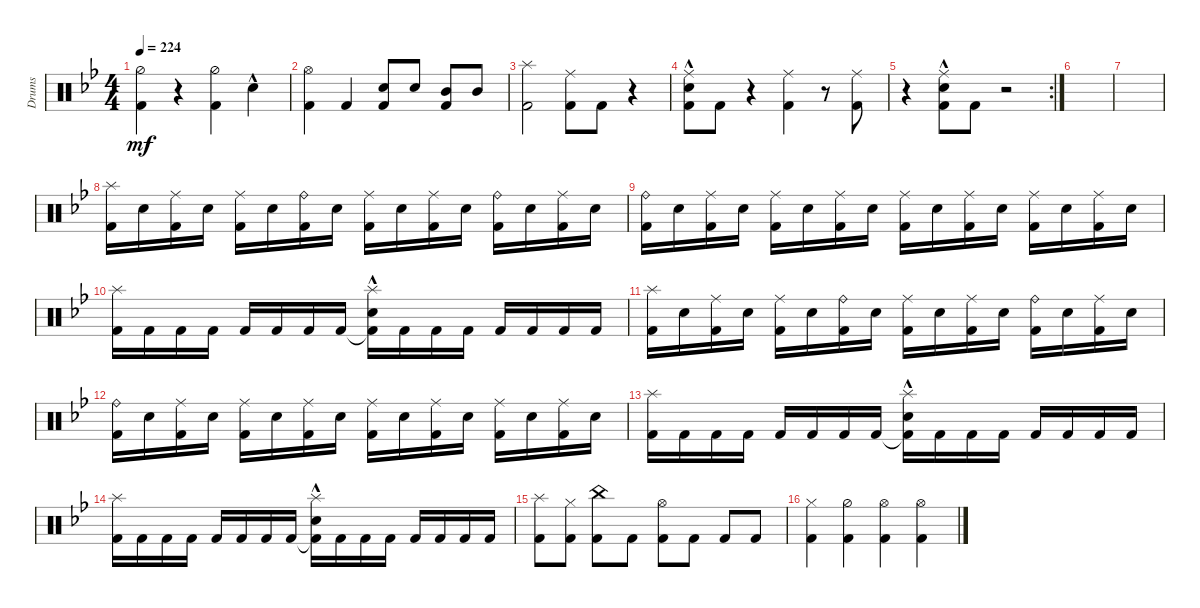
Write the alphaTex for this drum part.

\defaultSystemsLayout 4
\bracketExtendMode groupsimilarinstruments
\otherSystemsTrackNameOrientation horizontal
\track ("Drumkit" "Drums") {instrument percussion}
\staff {score}
\articulation defaults
\ts (4 4)
\tempo 224
\clef neutral
\scale
0.311111
\ks bb
("Kick (hit) 2"{acc forcenatural} "Hi-Hat (half)"{acc forcenatural}).4{dy mf beam Down} r.4{beam Down} ("Kick (hit) 2"{acc forcenatural} "Hi-Hat (half)"{acc forcenatural}).4{beam Down} "Snare (hit) 2"{hac acc forcenatural}.4{beam Down} |
\scale
0.311111 ("Kick (hit) 2"{acc forcenatural} "Hi-Hat (open)"{acc forcenatural}).4{beam Down} "Kick (hit) 2"{acc forcenatural}.4{beam Up} ("Snare (hit) 2"{acc forcenatural} "Kick (hit) 2"{acc forcenatural}).8{beam Up} "Snare (hit) 2"{acc forcenatural}.8{beam Up} ("Mid Tom (hit)"{acc forcenatural} "Kick (hit) 2"{acc forcenatural}).8{beam Up} "Mid Tom (hit)"{acc forcenatural}.8{beam Up} |
\scale
0.321839 ("Kick (hit) 2"{acc forcenatural} "Splash (hit)"{acc forcenatural}).2{beam Down} ("Kick (hit) 2"{acc forcenatural} "Ride (middle)"{acc forcenatural}).8{beam Down} "Kick (hit) 2"{acc forcenatural}.8{beam Down} r.4{beam Down} |
\scale
0.321839 ("Kick (hit) 2"{acc forcenatural} "Ride (middle)"{acc forcenatural} "Snare (hit) 2"{hac acc forcenatural}).8{beam Down} "Kick (hit) 2"{acc forcenatural}.8{beam Down} r.4{beam Down} ("Kick (hit) 2"{acc forcenatural} "Ride (middle)"{acc forcenatural}).4{beam Down} r.8{beam Down} ("Kick (hit) 2"{acc forcenatural} "Ride (middle)"{acc forcenatural}).8{beam Down} |
\rc 2
\scale
0.356322 r.4{beam Down} ("Kick (hit) 2"{acc forcenatural} "Ride (middle)"{acc forcenatural} "Snare (hit) 2"{hac acc forcenatural}).8{beam Down} "Kick (hit) 2"{acc forcenatural}.8{beam Down} r.2{beam Down} |
\scale
0.333333 |
\scale
0.333333 |
\scale
0.333333 ("Splash (hit)"{acc forcenatural} "Kick (hit) 2"{acc forcenatural}).16{beam Down} "Snare (hit) 2"{acc forcenatural}.16{beam Down} ("Kick (hit) 2"{acc forcenatural} "Ride (middle)"{acc forcenatural}).16{beam Down} "Snare (hit) 2"{acc forcenatural}.16{beam Down} ("Kick (hit) 2"{acc forcenatural} "Ride (middle)"{acc forcenatural}).16{beam Down} "Snare (hit) 2"{acc forcenatural}.16{beam Down} ("Kick (hit) 2"{acc forcenatural} "Ride (bell)"{acc forcenatural}).16{beam Down} "Snare (hit) 2"{acc forcenatural}.16{beam Down} ("Kick (hit) 2"{acc forcenatural} "Ride (middle)"{acc forcenatural}).16{beam Down} "Snare (hit) 2"{acc forcenatural}.16{beam Down} ("Kick (hit) 2"{acc forcenatural} "Ride (middle)"{acc forcenatural}).16{beam Down} "Snare (hit) 2"{acc forcenatural}.16{beam Down} ("Kick (hit) 2"{acc forcenatural} "Ride (bell)"{acc forcenatural}).16{beam Down} "Snare (hit) 2"{acc forcenatural}.16{beam Down} ("Kick (hit) 2"{acc forcenatural} "Ride (middle)"{acc forcenatural}).16{beam Down} "Snare (hit) 2"{acc forcenatural}.16{beam Down} |
\scale
0.333333 ("Kick (hit) 2"{acc forcenatural} "Ride (bell)"{acc forcenatural}).16{beam Down} "Snare (hit) 2"{acc forcenatural}.16{beam Down} ("Kick (hit) 2"{acc forcenatural} "Ride (middle)"{acc forcenatural}).16{beam Down} "Snare (hit) 2"{acc forcenatural}.16{beam Down} ("Kick (hit) 2"{acc forcenatural} "Ride (middle)"{acc forcenatural}).16{beam Down} "Snare (hit) 2"{acc forcenatural}.16{beam Down} ("Kick (hit) 2"{acc forcenatural} "Ride (middle)"{acc forcenatural}).16{beam Down} "Snare (hit) 2"{acc forcenatural}.16{beam Down} ("Kick (hit) 2"{acc forcenatural} "Ride (middle)"{acc forcenatural}).16{beam Down} "Snare (hit) 2"{acc forcenatural}.16{beam Down} ("Kick (hit) 2"{acc forcenatural} "Ride (middle)"{acc forcenatural}).16{beam Down} "Snare (hit) 2"{acc forcenatural}.16{beam Down} ("Kick (hit) 2"{acc forcenatural} "Ride (middle)"{acc forcenatural}).16{beam Down} "Snare (hit) 2"{acc forcenatural}.16{beam Down} ("Kick (hit) 2"{acc forcenatural} "Ride (middle)"{acc forcenatural}).16{beam Down} "Snare (hit) 2"{acc forcenatural}.16{beam Down} |
\scale
0.333333 ("Kick (hit) 2"{acc forcenatural} "Splash (hit)"{acc forcenatural}).16{beam Down} "Kick (hit) 2"{acc forcenatural}.16{beam Down} "Kick (hit) 2"{acc forcenatural}.16{beam Down} "Kick (hit) 2"{acc forcenatural}.16{beam Down} "Kick (hit) 2"{acc forcenatural}.16{beam Up} "Kick (hit) 2"{acc forcenatural}.16{beam Up} "Kick (hit) 2"{acc forcenatural}.16{beam Up} "Kick (hit) 2"{acc forcenatural}.16{beam Up} ("Kick (hit) 2"{t acc forcenatural} "Splash (hit)"{acc forcenatural} "Snare (hit) 2"{hac acc forcenatural}).16{beam Down} "Kick (hit) 2"{acc forcenatural}.16{beam Down} "Kick (hit) 2"{acc forcenatural}.16{beam Down} "Kick (hit) 2"{acc forcenatural}.16{beam Down} "Kick (hit) 2"{acc forcenatural}.16{beam Up} "Kick (hit) 2"{acc forcenatural}.16{beam Up} "Kick (hit) 2"{acc forcenatural}.16{beam Up} "Kick (hit) 2"{acc forcenatural}.16{beam Up} |
\scale
0.333333 ("Splash (hit)"{acc forcenatural} "Kick (hit) 2"{acc forcenatural}).16{beam Down} "Snare (hit) 2"{acc forcenatural}.16{beam Down} ("Kick (hit) 2"{acc forcenatural} "Ride (middle)"{acc forcenatural}).16{beam Down} "Snare (hit) 2"{acc forcenatural}.16{beam Down} ("Kick (hit) 2"{acc forcenatural} "Ride (middle)"{acc forcenatural}).16{beam Down} "Snare (hit) 2"{acc forcenatural}.16{beam Down} ("Kick (hit) 2"{acc forcenatural} "Ride (bell)"{acc forcenatural}).16{beam Down} "Snare (hit) 2"{acc forcenatural}.16{beam Down} ("Kick (hit) 2"{acc forcenatural} "Ride (middle)"{acc forcenatural}).16{beam Down} "Snare (hit) 2"{acc forcenatural}.16{beam Down} ("Kick (hit) 2"{acc forcenatural} "Ride (middle)"{acc forcenatural}).16{beam Down} "Snare (hit) 2"{acc forcenatural}.16{beam Down} ("Kick (hit) 2"{acc forcenatural} "Ride (bell)"{acc forcenatural}).16{beam Down} "Snare (hit) 2"{acc forcenatural}.16{beam Down} ("Kick (hit) 2"{acc forcenatural} "Ride (middle)"{acc forcenatural}).16{beam Down} "Snare (hit) 2"{acc forcenatural}.16{beam Down} |
\scale
0.333333 ("Kick (hit) 2"{acc forcenatural} "Ride (bell)"{acc forcenatural}).16{beam Down} "Snare (hit) 2"{acc forcenatural}.16{beam Down} ("Kick (hit) 2"{acc forcenatural} "Ride (middle)"{acc forcenatural}).16{beam Down} "Snare (hit) 2"{acc forcenatural}.16{beam Down} ("Kick (hit) 2"{acc forcenatural} "Ride (middle)"{acc forcenatural}).16{beam Down} "Snare (hit) 2"{acc forcenatural}.16{beam Down} ("Kick (hit) 2"{acc forcenatural} "Ride (middle)"{acc forcenatural}).16{beam Down} "Snare (hit) 2"{acc forcenatural}.16{beam Down} ("Kick (hit) 2"{acc forcenatural} "Ride (middle)"{acc forcenatural}).16{beam Down} "Snare (hit) 2"{acc forcenatural}.16{beam Down} ("Kick (hit) 2"{acc forcenatural} "Ride (middle)"{acc forcenatural}).16{beam Down} "Snare (hit) 2"{acc forcenatural}.16{beam Down} ("Kick (hit) 2"{acc forcenatural} "Ride (middle)"{acc forcenatural}).16{beam Down} "Snare (hit) 2"{acc forcenatural}.16{beam Down} ("Kick (hit) 2"{acc forcenatural} "Ride (middle)"{acc forcenatural}).16{beam Down} "Snare (hit) 2"{acc forcenatural}.16{beam Down} |
\scale
0.333333 ("Kick (hit) 2"{acc forcenatural} "Splash (hit)"{acc forcenatural}).16{beam Down} "Kick (hit) 2"{acc forcenatural}.16{beam Down} "Kick (hit) 2"{acc forcenatural}.16{beam Down} "Kick (hit) 2"{acc forcenatural}.16{beam Down} "Kick (hit) 2"{acc forcenatural}.16{beam Up} "Kick (hit) 2"{acc forcenatural}.16{beam Up} "Kick (hit) 2"{acc forcenatural}.16{beam Up} "Kick (hit) 2"{acc forcenatural}.16{beam Up} ("Kick (hit) 2"{t acc forcenatural} "Splash (hit)"{acc forcenatural} "Snare (hit) 2"{hac acc forcenatural}).16{beam Down} "Kick (hit) 2"{acc forcenatural}.16{beam Down} "Kick (hit) 2"{acc forcenatural}.16{beam Down} "Kick (hit) 2"{acc forcenatural}.16{beam Down} "Kick (hit) 2"{acc forcenatural}.16{beam Up} "Kick (hit) 2"{acc forcenatural}.16{beam Up} "Kick (hit) 2"{acc forcenatural}.16{beam Up} "Kick (hit) 2"{acc forcenatural}.16{beam Up} |
\scale
0.333333 ("Kick (hit) 2"{acc forcenatural} "Splash (hit)"{acc forcenatural}).16{beam Down} "Kick (hit) 2"{acc forcenatural}.16{beam Down} "Kick (hit) 2"{acc forcenatural}.16{beam Down} "Kick (hit) 2"{acc forcenatural}.16{beam Down} "Kick (hit) 2"{acc forcenatural}.16{beam Up} "Kick (hit) 2"{acc forcenatural}.16{beam Up} "Kick (hit) 2"{acc forcenatural}.16{beam Up} "Kick (hit) 2"{acc forcenatural}.16{beam Up} ("Kick (hit) 2"{t acc forcenatural} "Splash (hit)"{acc forcenatural} "Snare (hit) 2"{hac acc forcenatural}).16{beam Down} "Kick (hit) 2"{acc forcenatural}.16{beam Down} "Kick (hit) 2"{acc forcenatural}.16{beam Down} "Kick (hit) 2"{acc forcenatural}.16{beam Down} "Kick (hit) 2"{acc forcenatural}.16{beam Up} "Kick (hit) 2"{acc forcenatural}.16{beam Up} "Kick (hit) 2"{acc forcenatural}.16{beam Up} "Kick (hit) 2"{acc forcenatural}.16{beam Up} |
\scale
0.333333 ("Kick (hit) 2"{acc forcenatural} "Splash (hit)"{acc forcenatural}).8{beam Down} ("Kick (hit) 2"{acc forcenatural} "Hi-Hat (closed)"{acc forcenatural}).8{beam Down} ("Kick (hit) 2"{acc forcenatural} "China (hit)"{acc forcenatural}).8{beam Down} "Kick (hit) 2"{acc forcenatural}.8{beam Down} ("Kick (hit) 2"{acc forcenatural} "Hi-Hat (open)"{acc forcenatural}).8{beam Down} "Kick (hit) 2"{acc forcenatural}.8{beam Down} "Kick (hit) 2"{acc forcenatural}.8{beam Up} "Kick (hit) 2"{acc forcenatural}.8{beam Up} |
\scale
0.333333 ("Hi-Hat (closed)"{acc forcenatural} "Kick (hit) 2"{acc forcenatural}).4{beam Down} ("Hi-Hat (half)"{acc forcenatural} "Kick (hit) 2"{acc forcenatural}).4{beam Down} ("Hi-Hat (open)"{acc forcenatural} "Kick (hit) 2"{acc forcenatural}).4{beam Down} ("Hi-Hat (open)"{acc forcenatural} "Kick (hit) 2"{acc forcenatural}).4{beam Down}
